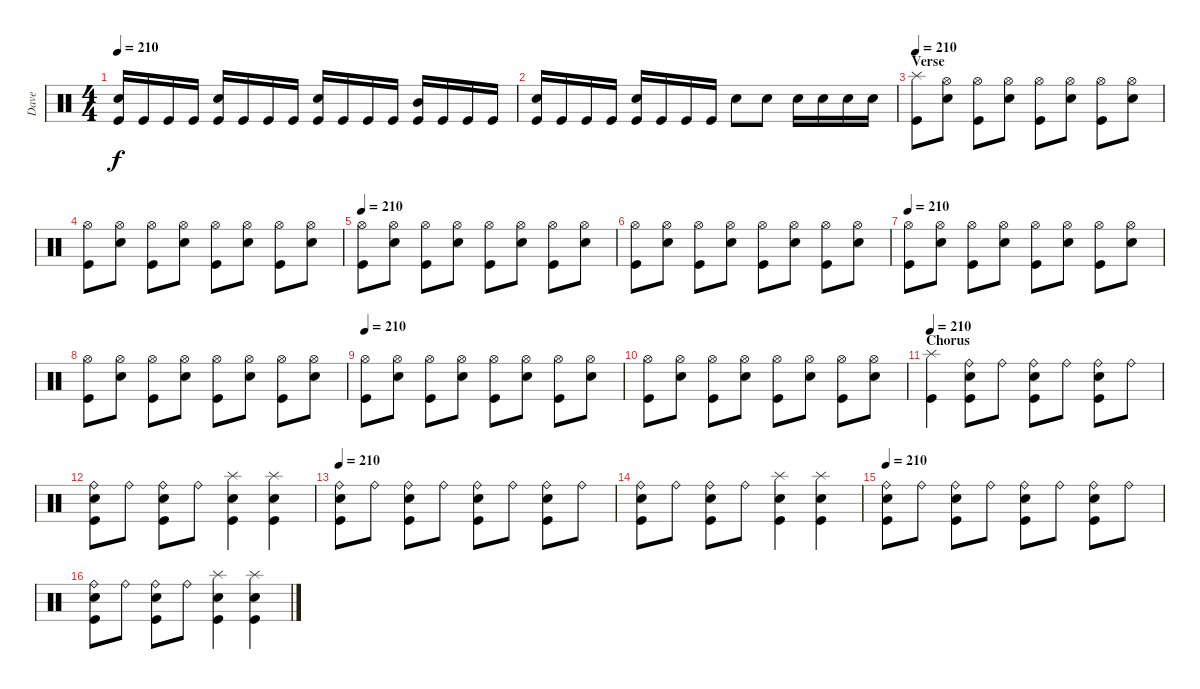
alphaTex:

\track ("Dave" "Dave") {instrument percussion}
\staff {score}
\articulation defaults
\ts (4 4)
\tempo 210
\clef neutral
\ks c
("Kick (hit)" "Electric Snare (hit)").16{dy f} "Kick (hit)".16 "Kick (hit)".16 "Kick (hit)".16 ("Kick (hit)" "Electric Snare (hit)").16 "Kick (hit)".16 "Kick (hit)".16 "Kick (hit)".16 ("Kick (hit)" "Electric Snare (hit)").16 "Kick (hit)".16 "Kick (hit)".16 "Kick (hit)".16 ("Kick (hit)" "Mid Tom (hit)").16 "Kick (hit)".16 "Kick (hit)".16 "Kick (hit)".16 |
("Kick (hit)" "Electric Snare (hit)").16 "Kick (hit)".16 "Kick (hit)".16 "Kick (hit)".16 ("Kick (hit)" "Electric Snare (hit)").16 "Kick (hit)".16 "Kick (hit)".16 "Kick (hit)".16 "Electric Snare (hit)".8 "Electric Snare (hit)".8 "Electric Snare (hit)".16 "Electric Snare (hit)".16 "Electric Snare (hit)".16 "Electric Snare (hit)".16 |
\section ("" "Verse")
\tempo 210
("Kick (hit)" "Splash (hit)").8 ("Electric Snare (hit)" "Hi-Hat (open)").8 ("Kick (hit)" "Hi-Hat (open)").8 ("Electric Snare (hit)" "Hi-Hat (open)").8 ("Kick (hit)" "Hi-Hat (open)").8 ("Electric Snare (hit)" "Hi-Hat (open)").8 ("Kick (hit)" "Hi-Hat (open)").8 ("Electric Snare (hit)" "Hi-Hat (open)").8 |
("Kick (hit)" "Hi-Hat (open)").8 ("Electric Snare (hit)" "Hi-Hat (open)").8 ("Kick (hit)" "Hi-Hat (open)").8 ("Electric Snare (hit)" "Hi-Hat (open)").8 ("Kick (hit)" "Hi-Hat (open)").8 ("Electric Snare (hit)" "Hi-Hat (open)").8 ("Kick (hit)" "Hi-Hat (open)").8 ("Electric Snare (hit)" "Hi-Hat (open)").8 |
\tempo 210
("Kick (hit)" "Hi-Hat (open)").8 ("Electric Snare (hit)" "Hi-Hat (open)").8 ("Kick (hit)" "Hi-Hat (open)").8 ("Electric Snare (hit)" "Hi-Hat (open)").8 ("Kick (hit)" "Hi-Hat (open)").8 ("Electric Snare (hit)" "Hi-Hat (open)").8 ("Kick (hit)" "Hi-Hat (open)").8 ("Electric Snare (hit)" "Hi-Hat (open)").8 |
("Kick (hit)" "Hi-Hat (open)").8 ("Electric Snare (hit)" "Hi-Hat (open)").8 ("Kick (hit)" "Hi-Hat (open)").8 ("Electric Snare (hit)" "Hi-Hat (open)").8 ("Kick (hit)" "Hi-Hat (open)").8 ("Electric Snare (hit)" "Hi-Hat (open)").8 ("Kick (hit)" "Hi-Hat (open)").8 ("Electric Snare (hit)" "Hi-Hat (open)").8 |
\tempo 210
("Kick (hit)" "Hi-Hat (open)").8 ("Electric Snare (hit)" "Hi-Hat (open)").8 ("Kick (hit)" "Hi-Hat (open)").8 ("Electric Snare (hit)" "Hi-Hat (open)").8 ("Kick (hit)" "Hi-Hat (open)").8 ("Electric Snare (hit)" "Hi-Hat (open)").8 ("Kick (hit)" "Hi-Hat (open)").8 ("Electric Snare (hit)" "Hi-Hat (open)").8 |
("Kick (hit)" "Hi-Hat (open)").8 ("Electric Snare (hit)" "Hi-Hat (open)").8 ("Kick (hit)" "Hi-Hat (open)").8 ("Electric Snare (hit)" "Hi-Hat (open)").8 ("Kick (hit)" "Hi-Hat (open)").8 ("Electric Snare (hit)" "Hi-Hat (open)").8 ("Kick (hit)" "Hi-Hat (open)").8 ("Electric Snare (hit)" "Hi-Hat (open)").8 |
\tempo 210
("Kick (hit)" "Hi-Hat (open)").8 ("Electric Snare (hit)" "Hi-Hat (open)").8 ("Kick (hit)" "Hi-Hat (open)").8 ("Electric Snare (hit)" "Hi-Hat (open)").8 ("Kick (hit)" "Hi-Hat (open)").8 ("Electric Snare (hit)" "Hi-Hat (open)").8 ("Kick (hit)" "Hi-Hat (open)").8 ("Electric Snare (hit)" "Hi-Hat (open)").8 |
("Kick (hit)" "Hi-Hat (open)").8 ("Electric Snare (hit)" "Hi-Hat (open)").8 ("Kick (hit)" "Hi-Hat (open)").8 ("Electric Snare (hit)" "Hi-Hat (open)").8 ("Kick (hit)" "Hi-Hat (open)").8 ("Electric Snare (hit)" "Hi-Hat (open)").8 ("Kick (hit)" "Hi-Hat (open)").8 ("Electric Snare (hit)" "Hi-Hat (open)").8 |
\section ("" "Chorus")
\tempo 210
("Kick (hit)" "Splash (hit)").4 ("Kick (hit)" "Electric Snare (hit)" "Ride (bell)").8 "Ride (bell)".8 ("Kick (hit)" "Electric Snare (hit)" "Ride (bell)").8 "Ride (bell)".8 ("Kick (hit)" "Electric Snare (hit)" "Ride (bell)").8 "Ride (bell)".8 |
("Kick (hit)" "Electric Snare (hit)" "Ride (bell)").8 "Ride (bell)".8 ("Kick (hit)" "Electric Snare (hit)" "Ride (bell)").8 "Ride (bell)".8 ("Kick (hit)" "Electric Snare (hit)" "Splash (hit)").4 ("Kick (hit)" "Electric Snare (hit)" "Splash (hit)").4 |
\tempo 210
("Kick (hit)" "Electric Snare (hit)" "Ride (bell)").8 "Ride (bell)".8 ("Kick (hit)" "Electric Snare (hit)" "Ride (bell)").8 "Ride (bell)".8 ("Kick (hit)" "Electric Snare (hit)" "Ride (bell)").8 "Ride (bell)".8 ("Kick (hit)" "Electric Snare (hit)" "Ride (bell)").8 "Ride (bell)".8 |
("Kick (hit)" "Electric Snare (hit)" "Ride (bell)").8 "Ride (bell)".8 ("Kick (hit)" "Electric Snare (hit)" "Ride (bell)").8 "Ride (bell)".8 ("Kick (hit)" "Electric Snare (hit)" "Splash (hit)").4 ("Kick (hit)" "Electric Snare (hit)" "Splash (hit)").4 |
\tempo 210
("Kick (hit)" "Electric Snare (hit)" "Ride (bell)").8 "Ride (bell)".8 ("Kick (hit)" "Electric Snare (hit)" "Ride (bell)").8 "Ride (bell)".8 ("Kick (hit)" "Electric Snare (hit)" "Ride (bell)").8 "Ride (bell)".8 ("Kick (hit)" "Electric Snare (hit)" "Ride (bell)").8 "Ride (bell)".8 |
("Kick (hit)" "Electric Snare (hit)" "Ride (bell)").8 "Ride (bell)".8 ("Kick (hit)" "Electric Snare (hit)" "Ride (bell)").8 "Ride (bell)".8 ("Kick (hit)" "Electric Snare (hit)" "Splash (hit)").4 ("Kick (hit)" "Electric Snare (hit)" "Splash (hit)").4
